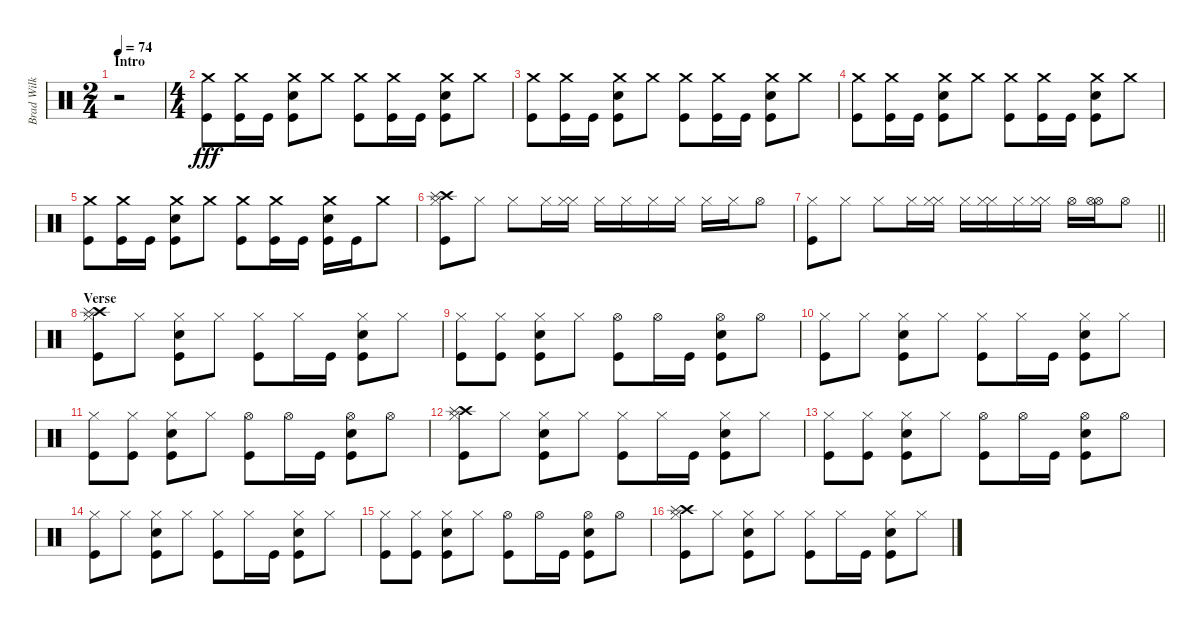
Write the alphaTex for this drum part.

\track ("Brad Wilk" "Brad Wilk") {instrument percussion}
\staff {score}
\articulation defaults
\ts (2 4)
\section ("" "Intro")
\tempo 74
\clef neutral
\ks c
r.2{dy fff} |
\ts (4 4)
("Crash medium (hit)" "Kick (hit)").8 ("Crash medium (hit)" "Kick (hit)").16 "Kick (hit)".16 ("Crash medium (hit)" "Kick (hit)" "Electric Snare (hit)").8 "Crash medium (hit)".8 ("Crash medium (hit)" "Kick (hit)").8 ("Crash medium (hit)" "Kick (hit)").16 "Kick (hit)".16 ("Crash medium (hit)" "Kick (hit)" "Electric Snare (hit)").8 "Crash medium (hit)".8 |
("Crash medium (hit)" "Kick (hit)").8 ("Crash medium (hit)" "Kick (hit)").16 "Kick (hit)".16 ("Crash medium (hit)" "Kick (hit)" "Electric Snare (hit)").8 "Crash medium (hit)".8 ("Crash medium (hit)" "Kick (hit)").8 ("Crash medium (hit)" "Kick (hit)").16 "Kick (hit)".16 ("Crash medium (hit)" "Kick (hit)" "Electric Snare (hit)").8 "Crash medium (hit)".8 |
("Crash medium (hit)" "Kick (hit)").8 ("Crash medium (hit)" "Kick (hit)").16 "Kick (hit)".16 ("Crash medium (hit)" "Kick (hit)" "Electric Snare (hit)").8 "Crash medium (hit)".8 ("Crash medium (hit)" "Kick (hit)").8 ("Crash medium (hit)" "Kick (hit)").16 "Kick (hit)".16 ("Crash medium (hit)" "Kick (hit)" "Electric Snare (hit)").8 "Crash medium (hit)".8 |
("Crash medium (hit)" "Kick (hit)").8 ("Crash medium (hit)" "Kick (hit)").16 "Kick (hit)".16 ("Crash medium (hit)" "Kick (hit)" "Electric Snare (hit)").8 "Crash medium (hit)".8 ("Crash medium (hit)" "Kick (hit)").8 ("Crash medium (hit)" "Kick (hit)").16 "Kick (hit)".16 ("Crash medium (hit)" "Kick (hit)" "Electric Snare (hit)").16 "Kick (hit)".16 "Crash medium (hit)".8 |
("Crash high (hit)" "Splash (hit)" "Kick (hit)" "Hi-Hat (closed)").8 "Hi-Hat (closed)".8 "Hi-Hat (closed)".8 "Hi-Hat (closed)".16 ("Hi-Hat (closed)" "Hi-Hat (closed)").16 "Hi-Hat (closed)".16 "Hi-Hat (closed)".16 "Hi-Hat (closed)".16 "Hi-Hat (closed)".16 "Hi-Hat (closed)".16 "Hi-Hat (closed)".16 "Hi-Hat (open)".8 |
\barLineRight lightlight
("Kick (hit)" "Hi-Hat (closed)").8 "Hi-Hat (closed)".8 "Hi-Hat (closed)".8 "Hi-Hat (closed)".16 ("Hi-Hat (closed)" "Hi-Hat (closed)").16 "Hi-Hat (closed)".16 ("Hi-Hat (closed)" "Hi-Hat (closed)").16 "Hi-Hat (closed)".16 ("Hi-Hat (closed)" "Hi-Hat (closed)").16 "Hi-Hat (open)".16 ("Hi-Hat (open)" "Hi-Hat (open)").16 "Hi-Hat (open)".8 |
\section ("" "Verse")
("Crash high (hit)" "Splash (hit)" "Kick (hit)" "Hi-Hat (closed)").8 "Hi-Hat (closed)".8 ("Kick (hit)" "Electric Snare (hit)" "Hi-Hat (closed)").8 "Hi-Hat (closed)".8 ("Kick (hit)" "Hi-Hat (closed)").8 "Hi-Hat (closed)".16 "Kick (hit)".16 ("Kick (hit)" "Electric Snare (hit)" "Hi-Hat (closed)").8 "Hi-Hat (closed)".8 |
("Kick (hit)" "Hi-Hat (closed)").8 ("Kick (hit)" "Hi-Hat (closed)").8 ("Kick (hit)" "Electric Snare (hit)" "Hi-Hat (closed)").8 "Hi-Hat (closed)".8 ("Kick (hit)" "Hi-Hat (open)").8 "Hi-Hat (open)".16 "Kick (hit)".16 ("Kick (hit)" "Electric Snare (hit)" "Hi-Hat (open)").8 "Hi-Hat (open)".8 |
("Kick (hit)" "Hi-Hat (closed)").8 "Hi-Hat (closed)".8 ("Kick (hit)" "Electric Snare (hit)" "Hi-Hat (closed)").8 "Hi-Hat (closed)".8 ("Kick (hit)" "Hi-Hat (closed)").8 "Hi-Hat (closed)".16 "Kick (hit)".16 ("Kick (hit)" "Electric Snare (hit)" "Hi-Hat (closed)").8 "Hi-Hat (closed)".8 |
("Kick (hit)" "Hi-Hat (closed)").8 ("Kick (hit)" "Hi-Hat (closed)").8 ("Kick (hit)" "Electric Snare (hit)" "Hi-Hat (closed)").8 "Hi-Hat (closed)".8 ("Kick (hit)" "Hi-Hat (open)").8 "Hi-Hat (open)".16 "Kick (hit)".16 ("Kick (hit)" "Electric Snare (hit)" "Hi-Hat (open)").8 "Hi-Hat (open)".8 |
("Crash high (hit)" "Splash (hit)" "Kick (hit)" "Hi-Hat (closed)").8 "Hi-Hat (closed)".8 ("Kick (hit)" "Electric Snare (hit)" "Hi-Hat (closed)").8 "Hi-Hat (closed)".8 ("Kick (hit)" "Hi-Hat (closed)").8 "Hi-Hat (closed)".16 "Kick (hit)".16 ("Kick (hit)" "Electric Snare (hit)" "Hi-Hat (closed)").8 "Hi-Hat (closed)".8 |
("Kick (hit)" "Hi-Hat (closed)").8 ("Kick (hit)" "Hi-Hat (closed)").8 ("Kick (hit)" "Electric Snare (hit)" "Hi-Hat (closed)").8 "Hi-Hat (closed)".8 ("Kick (hit)" "Hi-Hat (open)").8 "Hi-Hat (open)".16 "Kick (hit)".16 ("Kick (hit)" "Electric Snare (hit)" "Hi-Hat (open)").8 "Hi-Hat (open)".8 |
("Kick (hit)" "Hi-Hat (closed)").8 "Hi-Hat (closed)".8 ("Kick (hit)" "Electric Snare (hit)" "Hi-Hat (closed)").8 "Hi-Hat (closed)".8 ("Kick (hit)" "Hi-Hat (closed)").8 "Hi-Hat (closed)".16 "Kick (hit)".16 ("Kick (hit)" "Electric Snare (hit)" "Hi-Hat (closed)").8 "Hi-Hat (closed)".8 |
("Kick (hit)" "Hi-Hat (closed)").8 ("Kick (hit)" "Hi-Hat (closed)").8 ("Kick (hit)" "Electric Snare (hit)" "Hi-Hat (closed)").8 "Hi-Hat (closed)".8 ("Kick (hit)" "Hi-Hat (open)").8 "Hi-Hat (open)".16 "Kick (hit)".16 ("Kick (hit)" "Electric Snare (hit)" "Hi-Hat (open)").8 "Hi-Hat (open)".8 |
("Crash high (hit)" "Splash (hit)" "Kick (hit)" "Hi-Hat (closed)").8 "Hi-Hat (closed)".8 ("Kick (hit)" "Electric Snare (hit)" "Hi-Hat (closed)").8 "Hi-Hat (closed)".8 ("Kick (hit)" "Hi-Hat (closed)").8 "Hi-Hat (closed)".16 "Kick (hit)".16 ("Kick (hit)" "Electric Snare (hit)" "Hi-Hat (closed)").8 "Hi-Hat (closed)".8
